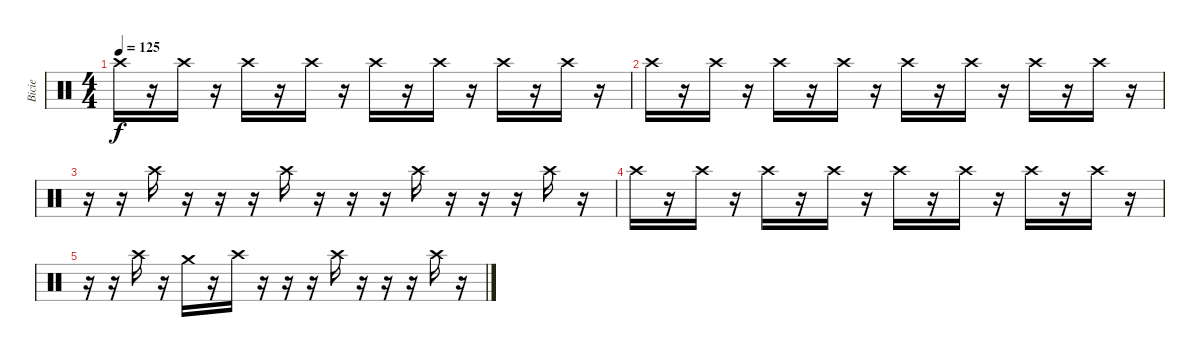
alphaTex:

\track ("Bicie" "Bicie") {instrument percussion}
\staff {score}
\articulation defaults
\ts (4 4)
\tempo 125
\clef neutral
\ks c "Crash high (hit)".16{dy f}
r.16 "Crash high (hit)".16 r.16 "Crash high (hit)".16 r.16 "Crash high (hit)".16 r.16 "Crash high (hit)".16 r.16 "Crash high (hit)".16 r.16 "Crash high (hit)".16 r.16 "Crash high (hit)".16 r.16 |
"Crash high (hit)".16 r.16 "Crash high (hit)".16 r.16 "Crash high (hit)".16 r.16 "Crash high (hit)".16 r.16 "Crash high (hit)".16 r.16 "Crash high (hit)".16 r.16 "Crash high (hit)".16 r.16 "Crash high (hit)".16 r.16 |
r.16 r.16 "Crash high (hit)".16 r.16 r.16 r.16 "Crash high (hit)".16 r.16 r.16 r.16 "Crash high (hit)".16 r.16 r.16 r.16 "Crash high (hit)".16 r.16 |
"Crash high (hit)".16 r.16 "Crash high (hit)".16 r.16 "Crash high (hit)".16 r.16 "Crash high (hit)".16 r.16 "Crash high (hit)".16 r.16 "Crash high (hit)".16 r.16 "Crash high (hit)".16 r.16 "Crash high (hit)".16 r.16 |
r.16 r.16 "Crash high (hit)".16 r.16 "Crash medium (hit)".16 r.16 "Crash high (hit)".16 r.16 r.16 r.16 "Crash high (hit)".16 r.16 r.16 r.16 "Crash high (hit)".16 r.16
